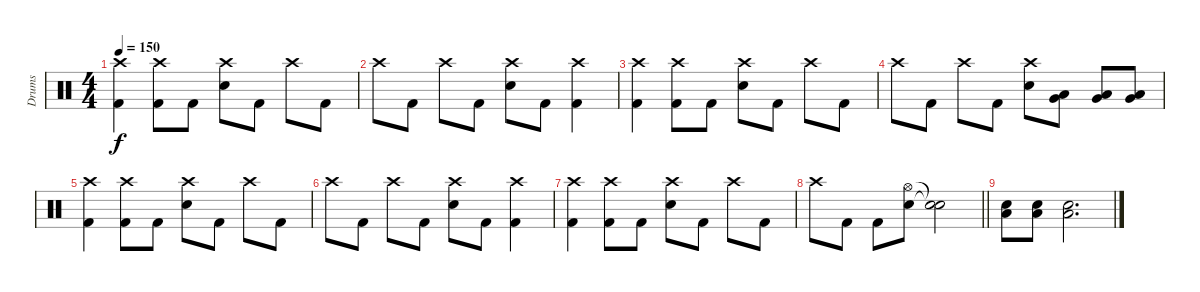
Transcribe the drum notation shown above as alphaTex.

\track ("Drums" "Drums") {instrument percussion}
\staff {score}
\articulation defaults
\ts (4 4)
\tempo 150
\clef neutral
\ks c
("Crash high (hit)" "Kick (hit) 2").4{dy f} ("Crash high (hit)" "Kick (hit) 2").8 "Kick (hit) 2".8 ("Crash high (hit)" "Snare (hit) 2").8 "Kick (hit) 2".8 "Crash high (hit)".8 "Kick (hit) 2".8 |
"Crash high (hit)".8 "Kick (hit) 2".8 "Crash high (hit)".8 "Kick (hit) 2".8 ("Crash high (hit)" "Snare (hit) 2").8 "Kick (hit) 2".8 ("Crash high (hit)" "Kick (hit) 2").4 |
("Crash high (hit)" "Kick (hit) 2").4 ("Crash high (hit)" "Kick (hit) 2").8 "Kick (hit) 2".8 ("Crash high (hit)" "Snare (hit) 2").8 "Kick (hit) 2".8 "Crash high (hit)".8 "Kick (hit) 2".8 |
"Crash high (hit)".8 "Kick (hit) 2".8 "Crash high (hit)".8 "Kick (hit) 2".8 ("Crash high (hit)" "Snare (hit) 2").8 ("Very Low Tom (hit)" "Low Tom (hit)").8 ("Very Low Tom (hit)" "Low Tom (hit)").8 ("Very Low Tom (hit)" "Low Tom (hit)").8 |
("Crash high (hit)" "Kick (hit) 2").4 ("Crash high (hit)" "Kick (hit) 2").8 "Kick (hit) 2".8 ("Crash high (hit)" "Snare (hit) 2").8 "Kick (hit) 2".8 "Crash high (hit)".8 "Kick (hit) 2".8 |
"Crash high (hit)".8 "Kick (hit) 2".8 "Crash high (hit)".8 "Kick (hit) 2".8 ("Crash high (hit)" "Snare (hit) 2").8 "Kick (hit) 2".8 ("Crash high (hit)" "Kick (hit) 2").4 |
("Crash high (hit)" "Kick (hit) 2").4 ("Crash high (hit)" "Kick (hit) 2").8 "Kick (hit) 2".8 ("Crash high (hit)" "Snare (hit) 2").8 "Kick (hit) 2".8 "Crash high (hit)".8 "Kick (hit) 2".8 |
\barLineRight lightlight "Crash high (hit)".8 "Kick (hit) 2".8 "Kick (hit) 2".8
("Hi-Hat (open)" "Snare (hit) 2").8 ("Snare (hit)"{t} "Snare (hit)"{t}).2 |
("Snare (hit) 2" "Low Tom (hit)").8 ("Snare (hit) 2" "Low Tom (hit)").8 ("Snare (hit) 2" "Low Tom (hit)").2{d}
